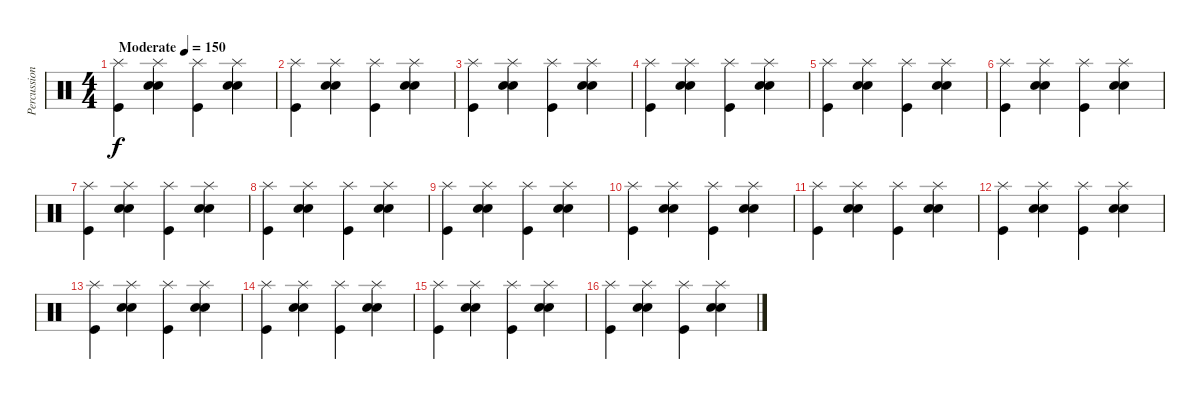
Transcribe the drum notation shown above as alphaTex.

\track ("Percussion" "Percussion") {instrument percussion}
\staff {score}
\articulation defaults
\ts (4 4)
\tempo (150 "Moderate")
\clef neutral
\ks c
("Splash (hit)" "Kick (hit)").4{dy f} ("Splash (hit)" "Snare (hit) 2" "Hand Clap (hit)").4 ("Splash (hit)" "Kick (hit)").4 ("Splash (hit)" "Snare (hit) 2" "Hand Clap (hit)").4 |
("Splash (hit)" "Kick (hit)").4 ("Splash (hit)" "Snare (hit) 2" "Hand Clap (hit)").4 ("Splash (hit)" "Kick (hit)").4 ("Splash (hit)" "Snare (hit) 2" "Hand Clap (hit)").4 |
("Splash (hit)" "Kick (hit)").4 ("Splash (hit)" "Snare (hit) 2" "Hand Clap (hit)").4 ("Splash (hit)" "Kick (hit)").4 ("Splash (hit)" "Snare (hit) 2" "Hand Clap (hit)").4 |
("Splash (hit)" "Kick (hit)").4 ("Splash (hit)" "Snare (hit) 2" "Hand Clap (hit)").4 ("Splash (hit)" "Kick (hit)").4 ("Splash (hit)" "Snare (hit) 2" "Hand Clap (hit)").4 |
("Splash (hit)" "Kick (hit)").4 ("Splash (hit)" "Snare (hit) 2" "Hand Clap (hit)").4 ("Splash (hit)" "Kick (hit)").4 ("Splash (hit)" "Snare (hit) 2" "Hand Clap (hit)").4 |
("Splash (hit)" "Kick (hit)").4 ("Splash (hit)" "Snare (hit) 2" "Hand Clap (hit)").4 ("Splash (hit)" "Kick (hit)").4 ("Splash (hit)" "Snare (hit) 2" "Hand Clap (hit)").4 |
("Splash (hit)" "Kick (hit)").4 ("Splash (hit)" "Snare (hit) 2" "Hand Clap (hit)").4 ("Splash (hit)" "Kick (hit)").4 ("Splash (hit)" "Snare (hit) 2" "Hand Clap (hit)").4 |
("Splash (hit)" "Kick (hit)").4 ("Splash (hit)" "Snare (hit) 2" "Hand Clap (hit)").4 ("Splash (hit)" "Kick (hit)").4 ("Splash (hit)" "Snare (hit) 2" "Hand Clap (hit)").4 |
("Splash (hit)" "Kick (hit)").4 ("Splash (hit)" "Snare (hit) 2" "Hand Clap (hit)").4 ("Splash (hit)" "Kick (hit)").4 ("Splash (hit)" "Snare (hit) 2" "Hand Clap (hit)").4 |
("Splash (hit)" "Kick (hit)").4 ("Splash (hit)" "Snare (hit) 2" "Hand Clap (hit)").4 ("Splash (hit)" "Kick (hit)").4 ("Splash (hit)" "Snare (hit) 2" "Hand Clap (hit)").4 |
("Splash (hit)" "Kick (hit)").4 ("Splash (hit)" "Snare (hit) 2" "Hand Clap (hit)").4 ("Splash (hit)" "Kick (hit)").4 ("Splash (hit)" "Snare (hit) 2" "Hand Clap (hit)").4 |
("Splash (hit)" "Kick (hit)").4 ("Splash (hit)" "Snare (hit) 2" "Hand Clap (hit)").4 ("Splash (hit)" "Kick (hit)").4 ("Splash (hit)" "Snare (hit) 2" "Hand Clap (hit)").4 |
("Splash (hit)" "Kick (hit)").4 ("Splash (hit)" "Snare (hit) 2" "Hand Clap (hit)").4 ("Splash (hit)" "Kick (hit)").4 ("Splash (hit)" "Snare (hit) 2" "Hand Clap (hit)").4 |
("Splash (hit)" "Kick (hit)").4 ("Splash (hit)" "Snare (hit) 2" "Hand Clap (hit)").4 ("Splash (hit)" "Kick (hit)").4 ("Splash (hit)" "Snare (hit) 2" "Hand Clap (hit)").4 |
("Splash (hit)" "Kick (hit)").4 ("Splash (hit)" "Snare (hit) 2" "Hand Clap (hit)").4 ("Splash (hit)" "Kick (hit)").4 ("Splash (hit)" "Snare (hit) 2" "Hand Clap (hit)").4 |
("Splash (hit)" "Kick (hit)").4 ("Splash (hit)" "Snare (hit) 2" "Hand Clap (hit)").4 ("Splash (hit)" "Kick (hit)").4 ("Splash (hit)" "Snare (hit) 2" "Hand Clap (hit)").4
